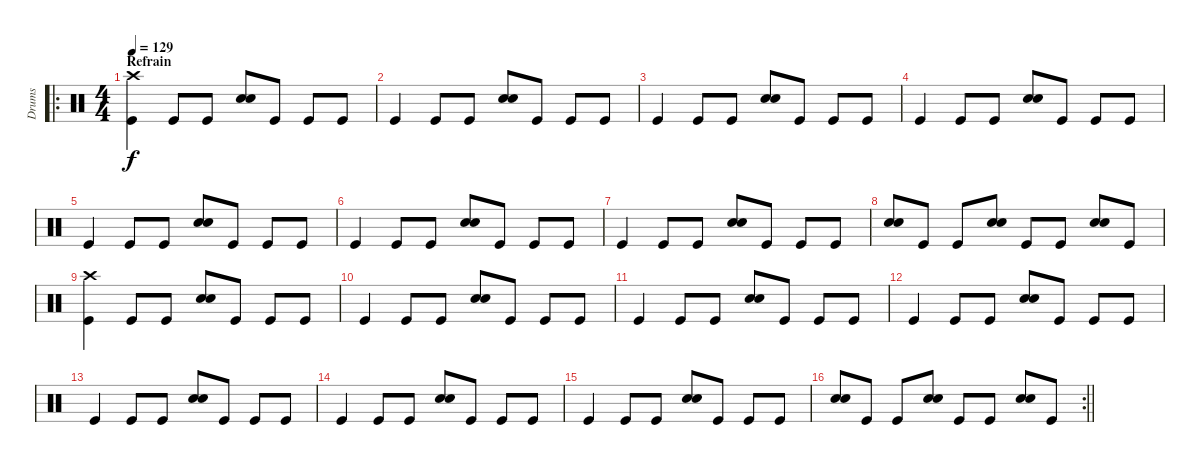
\track ("Drums" "Drums") {instrument percussion}
\staff {score}
\articulation defaults
\ro
\ts (4 4)
\section ("" "Refrain")
\tempo 129
\clef neutral
\ks c
("Crash high (hit)" "Kick (hit)").4{dy f} "Kick (hit)".8 "Kick (hit)".8 ("Snare (hit) 2" "Electric Snare (hit)").8 "Kick (hit)".8 "Kick (hit)".8 "Kick (hit)".8 |
"Kick (hit)".4 "Kick (hit)".8 "Kick (hit)".8 ("Snare (hit) 2" "Electric Snare (hit)").8 "Kick (hit)".8 "Kick (hit)".8 "Kick (hit)".8 |
"Kick (hit)".4 "Kick (hit)".8 "Kick (hit)".8 ("Snare (hit) 2" "Electric Snare (hit)").8 "Kick (hit)".8 "Kick (hit)".8 "Kick (hit)".8 |
"Kick (hit)".4 "Kick (hit)".8 "Kick (hit)".8 ("Snare (hit) 2" "Electric Snare (hit)").8 "Kick (hit)".8 "Kick (hit)".8 "Kick (hit)".8 |
"Kick (hit)".4 "Kick (hit)".8 "Kick (hit)".8 ("Snare (hit) 2" "Electric Snare (hit)").8 "Kick (hit)".8 "Kick (hit)".8 "Kick (hit)".8 |
"Kick (hit)".4 "Kick (hit)".8 "Kick (hit)".8 ("Snare (hit) 2" "Electric Snare (hit)").8 "Kick (hit)".8 "Kick (hit)".8 "Kick (hit)".8 |
"Kick (hit)".4 "Kick (hit)".8 "Kick (hit)".8 ("Snare (hit) 2" "Electric Snare (hit)").8 "Kick (hit)".8 "Kick (hit)".8 "Kick (hit)".8 |
("Snare (hit) 2" "Electric Snare (hit)").8 "Kick (hit)".8 "Kick (hit)".8 ("Snare (hit) 2" "Electric Snare (hit)").8 "Kick (hit)".8 "Kick (hit)".8 ("Snare (hit) 2" "Electric Snare (hit)").8 "Kick (hit)".8 |
("Crash high (hit)" "Kick (hit)").4 "Kick (hit)".8 "Kick (hit)".8 ("Snare (hit) 2" "Electric Snare (hit)").8 "Kick (hit)".8 "Kick (hit)".8 "Kick (hit)".8 |
"Kick (hit)".4 "Kick (hit)".8 "Kick (hit)".8 ("Snare (hit) 2" "Electric Snare (hit)").8 "Kick (hit)".8 "Kick (hit)".8 "Kick (hit)".8 |
"Kick (hit)".4 "Kick (hit)".8 "Kick (hit)".8 ("Snare (hit) 2" "Electric Snare (hit)").8 "Kick (hit)".8 "Kick (hit)".8 "Kick (hit)".8 |
"Kick (hit)".4 "Kick (hit)".8 "Kick (hit)".8 ("Snare (hit) 2" "Electric Snare (hit)").8 "Kick (hit)".8 "Kick (hit)".8 "Kick (hit)".8 |
"Kick (hit)".4 "Kick (hit)".8 "Kick (hit)".8 ("Snare (hit) 2" "Electric Snare (hit)").8 "Kick (hit)".8 "Kick (hit)".8 "Kick (hit)".8 |
"Kick (hit)".4 "Kick (hit)".8 "Kick (hit)".8 ("Snare (hit) 2" "Electric Snare (hit)").8 "Kick (hit)".8 "Kick (hit)".8 "Kick (hit)".8 |
"Kick (hit)".4 "Kick (hit)".8 "Kick (hit)".8 ("Snare (hit) 2" "Electric Snare (hit)").8 "Kick (hit)".8 "Kick (hit)".8 "Kick (hit)".8 |
\rc 2
\barLineRight lightlight
("Snare (hit) 2" "Electric Snare (hit)").8 "Kick (hit)".8 "Kick (hit)".8 ("Snare (hit) 2" "Electric Snare (hit)").8 "Kick (hit)".8 "Kick (hit)".8 ("Snare (hit) 2" "Electric Snare (hit)").8 "Kick (hit)".8
